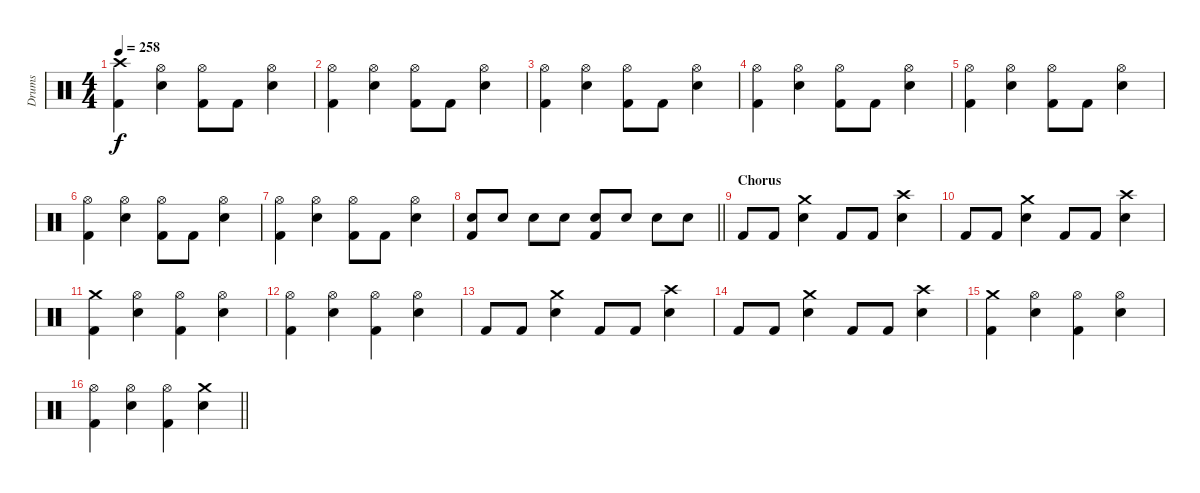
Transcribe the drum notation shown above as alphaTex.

\track ("Drums" "Drums") {instrument percussion}
\staff {score}
\articulation defaults
\ts (4 4)
\tempo 258
\clef neutral
\ks c
("Crash high (hit)" "Kick (hit) 2").4{dy f} ("Hi-Hat (open)" "Electric Snare (hit)").4 ("Hi-Hat (open)" "Kick (hit) 2").8 "Kick (hit) 2".8 ("Hi-Hat (open)" "Electric Snare (hit)").4 |
("Hi-Hat (open)" "Kick (hit) 2").4 ("Hi-Hat (open)" "Electric Snare (hit)").4 ("Hi-Hat (open)" "Kick (hit) 2").8 "Kick (hit) 2".8 ("Hi-Hat (open)" "Electric Snare (hit)").4 |
("Hi-Hat (open)" "Kick (hit) 2").4 ("Hi-Hat (open)" "Electric Snare (hit)").4 ("Hi-Hat (open)" "Kick (hit) 2").8 "Kick (hit) 2".8 ("Hi-Hat (open)" "Electric Snare (hit)").4 |
("Hi-Hat (open)" "Kick (hit) 2").4 ("Hi-Hat (open)" "Electric Snare (hit)").4 ("Hi-Hat (open)" "Kick (hit) 2").8 "Kick (hit) 2".8 ("Hi-Hat (open)" "Electric Snare (hit)").4 |
("Hi-Hat (open)" "Kick (hit) 2").4 ("Hi-Hat (open)" "Electric Snare (hit)").4 ("Hi-Hat (open)" "Kick (hit) 2").8 "Kick (hit) 2".8 ("Hi-Hat (open)" "Electric Snare (hit)").4 |
("Hi-Hat (open)" "Kick (hit) 2").4 ("Hi-Hat (open)" "Electric Snare (hit)").4 ("Hi-Hat (open)" "Kick (hit) 2").8 "Kick (hit) 2".8 ("Hi-Hat (open)" "Electric Snare (hit)").4 |
("Hi-Hat (open)" "Kick (hit) 2").4 ("Hi-Hat (open)" "Electric Snare (hit)").4 ("Hi-Hat (open)" "Kick (hit) 2").8 "Kick (hit) 2".8 ("Hi-Hat (open)" "Electric Snare (hit)").4 |
\barLineRight lightlight
("Electric Snare (hit)" "Kick (hit) 2").8 "Electric Snare (hit)".8 "Electric Snare (hit)".8 "Electric Snare (hit)".8 ("Electric Snare (hit)" "Kick (hit) 2").8 "Electric Snare (hit)".8 "Electric Snare (hit)".8 "Electric Snare (hit)".8 |
\section ("" "Chorus")
"Kick (hit) 2".8 "Kick (hit) 2".8 ("Crash medium (hit)" "Electric Snare (hit)").4 "Kick (hit) 2".8 "Kick (hit) 2".8 ("Crash high (hit)" "Electric Snare (hit)").4 |
"Kick (hit) 2".8 "Kick (hit) 2".8 ("Crash medium (hit)" "Electric Snare (hit)").4 "Kick (hit) 2".8 "Kick (hit) 2".8 ("Crash high (hit)" "Electric Snare (hit)").4 |
("Crash medium (hit)" "Kick (hit) 2").4 ("Hi-Hat (open)" "Electric Snare (hit)").4 ("Hi-Hat (open)" "Kick (hit) 2").4 ("Hi-Hat (open)" "Electric Snare (hit)").4 |
("Hi-Hat (open)" "Kick (hit) 2").4 ("Hi-Hat (open)" "Electric Snare (hit)").4 ("Hi-Hat (open)" "Kick (hit) 2").4 ("Hi-Hat (open)" "Electric Snare (hit)").4 |
"Kick (hit) 2".8 "Kick (hit) 2".8 ("Crash medium (hit)" "Electric Snare (hit)").4 "Kick (hit) 2".8 "Kick (hit) 2".8 ("Crash high (hit)" "Electric Snare (hit)").4 |
"Kick (hit) 2".8 "Kick (hit) 2".8 ("Crash medium (hit)" "Electric Snare (hit)").4 "Kick (hit) 2".8 "Kick (hit) 2".8 ("Crash high (hit)" "Electric Snare (hit)").4 |
("Crash medium (hit)" "Kick (hit) 2").4 ("Hi-Hat (open)" "Electric Snare (hit)").4 ("Hi-Hat (open)" "Kick (hit) 2").4 ("Hi-Hat (open)" "Electric Snare (hit)").4 |
\barLineRight lightlight
("Hi-Hat (open)" "Kick (hit) 2").4 ("Hi-Hat (open)" "Electric Snare (hit)").4 ("Hi-Hat (open)" "Kick (hit) 2").4 ("Crash medium (hit)" "Electric Snare (hit)").4
